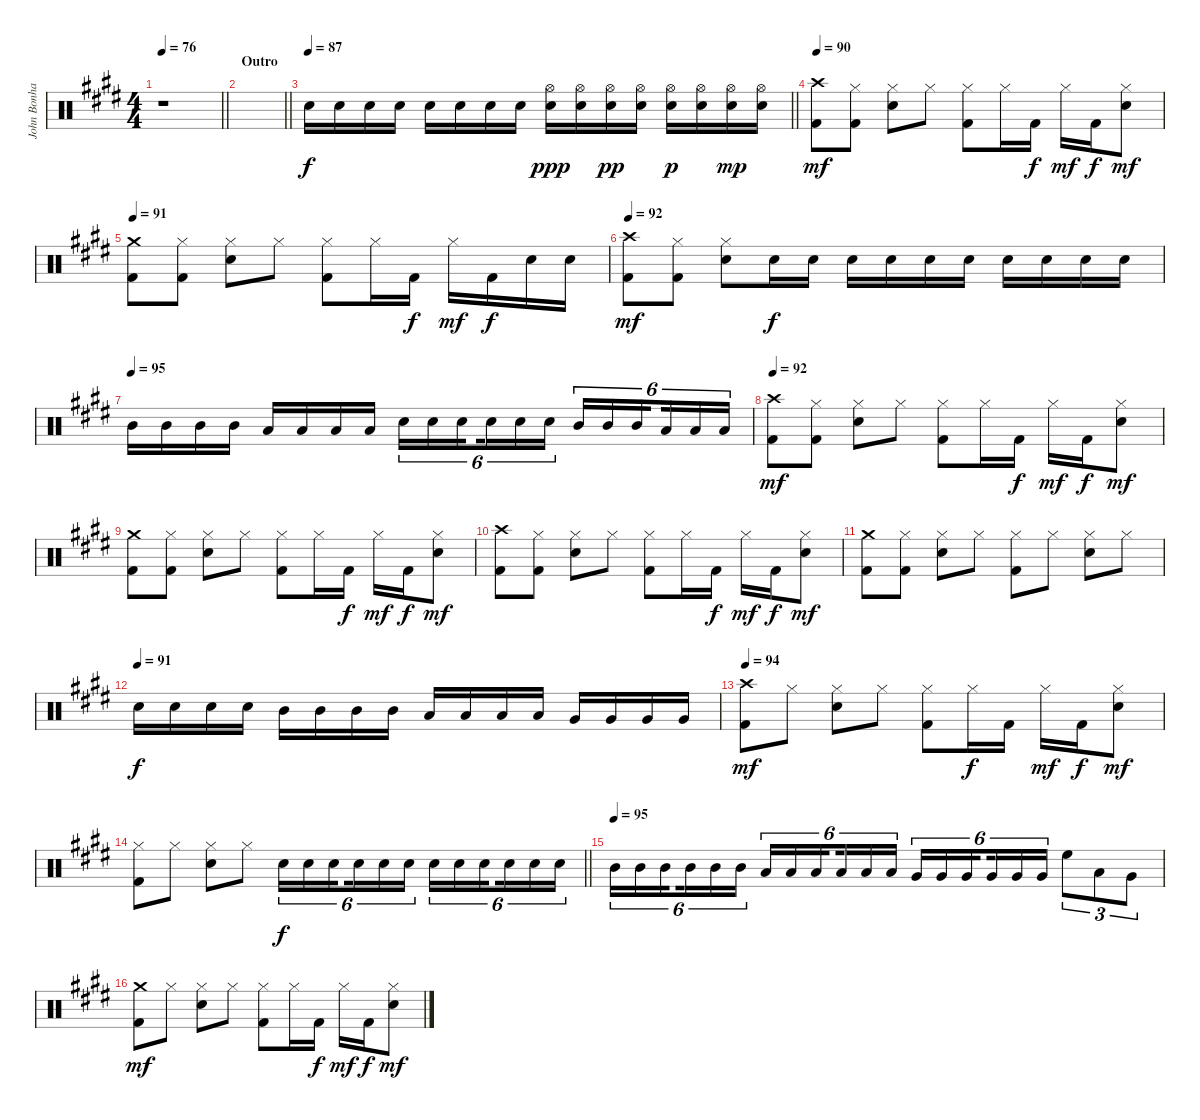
\track ("John Bonham Drums" "John Bonha") {instrument percussion}
\staff {score}
\articulation defaults
\ts (4 4)
\tempo 76
\clef neutral
\barLineRight lightlight
\ks e
r.1{dy mf} |
\section ("" "Outro")
\barLineRight lightlight
|
\tempo 87
\barLineRight lightlight "Snare (hit) 2".16{dy f} "Snare (hit) 2".16 "Snare (hit) 2".16 "Snare (hit) 2".16 "Snare (hit) 2".16 "Snare (hit) 2".16 "Snare (hit) 2".16 "Snare (hit) 2".16
("Hi-Hat (open)" "Snare (hit) 2").16{dy ppp} ("Hi-Hat (open)" "Snare (hit) 2").16 ("Hi-Hat (open)" "Snare (hit) 2").16{dy pp} ("Hi-Hat (open)" "Snare (hit) 2").16 ("Hi-Hat (open)" "Snare (hit) 2").16{dy p} ("Hi-Hat (open)" "Snare (hit) 2").16 ("Hi-Hat (open)" "Snare (hit) 2").16{dy mp} ("Hi-Hat (open)" "Snare (hit) 2").16 |
\tempo 90
("Crash high (hit)" "Kick (hit) 2").8{dy mf} ("Hi-Hat (closed)" "Kick (hit) 2").8 ("Hi-Hat (closed)" "Snare (hit) 2").8 "Hi-Hat (closed)".8 ("Hi-Hat (closed)" "Kick (hit) 2").8 "Hi-Hat (closed)".16 "Kick (hit) 2".16{dy f} "Hi-Hat (closed)".16{dy mf} "Kick (hit) 2".16{dy f} ("Hi-Hat (closed)" "Snare (hit) 2").8{dy mf} |
\tempo 91
("Crash medium (hit)" "Kick (hit) 2").8 ("Hi-Hat (closed)" "Kick (hit) 2").8 ("Hi-Hat (closed)" "Snare (hit) 2").8 "Hi-Hat (closed)".8 ("Hi-Hat (closed)" "Kick (hit) 2").8 "Hi-Hat (closed)".16 "Kick (hit) 2".16{dy f} "Hi-Hat (closed)".16{dy mf} "Kick (hit) 2".16{dy f} "Snare (hit) 2".16 "Snare (hit) 2".16 |
\tempo 92
("Crash high (hit)" "Kick (hit) 2").8{dy mf} ("Hi-Hat (closed)" "Kick (hit) 2").8 ("Hi-Hat (closed)" "Snare (hit) 2").8 "Snare (hit) 2".16{dy f} "Snare (hit) 2".16 "Snare (hit) 2".16 "Snare (hit) 2".16 "Snare (hit) 2".16 "Snare (hit) 2".16 "Snare (hit) 2".16 "Snare (hit) 2".16 "Snare (hit) 2".16 "Snare (hit) 2".16 |
\tempo (95)
"Mid Tom (hit)".16 "Mid Tom (hit)".16 "Mid Tom (hit)".16 "Mid Tom (hit)".16 "Low Tom (hit)".16 "Low Tom (hit)".16 "Low Tom (hit)".16 "Low Tom (hit)".16 "Snare (hit) 2".16{tu (6 4)} "Snare (hit) 2".16{tu (6 4)} "Snare (hit) 2".16{tu (6 4) beam splitsecondary} "Snare (hit) 2".16{tu (6 4)} "Snare (hit) 2".16{tu (6 4)} "Snare (hit) 2".16{tu (6 4)} "Mid Tom (hit)".16{tu (6 4)} "Mid Tom (hit)".16{tu (6 4)} "Mid Tom (hit)".16{tu (6 4) beam splitsecondary} "Low Tom (hit)".16{tu (6 4)} "Low Tom (hit)".16{tu (6 4)} "Low Tom (hit)".16{tu (6 4)} |
\tempo 92
("Crash high (hit)" "Kick (hit) 2").8{dy mf} ("Hi-Hat (closed)" "Kick (hit) 2").8 ("Hi-Hat (closed)" "Snare (hit) 2").8 "Hi-Hat (closed)".8 ("Hi-Hat (closed)" "Kick (hit) 2").8 "Hi-Hat (closed)".16 "Kick (hit) 2".16{dy f} "Hi-Hat (closed)".16{dy mf} "Kick (hit) 2".16{dy f} ("Hi-Hat (closed)" "Snare (hit) 2").8{dy mf} |
("Crash medium (hit)" "Kick (hit) 2").8 ("Hi-Hat (closed)" "Kick (hit) 2").8 ("Hi-Hat (closed)" "Snare (hit) 2").8 "Hi-Hat (closed)".8 ("Hi-Hat (closed)" "Kick (hit) 2").8 "Hi-Hat (closed)".16 "Kick (hit) 2".16{dy f} "Hi-Hat (closed)".16{dy mf} "Kick (hit) 2".16{dy f} ("Hi-Hat (closed)" "Snare (hit) 2").8{dy mf} |
("Crash high (hit)" "Kick (hit) 2").8 ("Hi-Hat (closed)" "Kick (hit) 2").8 ("Hi-Hat (closed)" "Snare (hit) 2").8 "Hi-Hat (closed)".8 ("Hi-Hat (closed)" "Kick (hit) 2").8 "Hi-Hat (closed)".16 "Kick (hit) 2".16{dy f} "Hi-Hat (closed)".16{dy mf} "Kick (hit) 2".16{dy f} ("Hi-Hat (closed)" "Snare (hit) 2").8{dy mf} |
("Crash medium (hit)" "Kick (hit) 2").8 ("Hi-Hat (closed)" "Kick (hit) 2").8 ("Hi-Hat (closed)" "Snare (hit) 2").8 "Hi-Hat (closed)".8 ("Hi-Hat (closed)" "Kick (hit) 2").8 "Hi-Hat (closed)".8 ("Hi-Hat (closed)" "Snare (hit) 2").8 "Hi-Hat (closed)".8 |
\tempo (91)
"Snare (hit) 2".16{dy f} "Snare (hit) 2".16 "Snare (hit) 2".16 "Snare (hit) 2".16 "Mid Tom (hit)".16 "Mid Tom (hit)".16 "Mid Tom (hit)".16 "Mid Tom (hit)".16 "Low Tom (hit)".16 "Low Tom (hit)".16 "Low Tom (hit)".16 "Low Tom (hit)".16 "Very Low Tom (hit)".16 "Very Low Tom (hit)".16 "Very Low Tom (hit)".16 "Very Low Tom (hit)".16 |
\tempo 94
("Crash high (hit)" "Kick (hit) 2").8{dy mf} "Hi-Hat (closed)".8 ("Hi-Hat (closed)" "Snare (hit) 2").8 "Hi-Hat (closed)".8 ("Hi-Hat (closed)" "Kick (hit) 2").8 "Hi-Hat (closed)".16{dy f} "Kick (hit) 2".16 "Hi-Hat (closed)".16{dy mf} "Kick (hit) 2".16{dy f} ("Hi-Hat (closed)" "Snare (hit) 2").8{dy mf} |
\barLineRight lightlight
("Hi-Hat (closed)" "Kick (hit) 2").8 "Hi-Hat (closed)".8 ("Hi-Hat (closed)" "Snare (hit) 2").8 "Hi-Hat (closed)".8 "Snare (hit) 2".16{tu (6 4) dy f} "Snare (hit) 2".16{tu (6 4)} "Snare (hit) 2".16{tu (6 4) beam splitsecondary} "Snare (hit) 2".16{tu (6 4)} "Snare (hit) 2".16{tu (6 4)} "Snare (hit) 2".16{tu (6 4)} "Snare (hit) 2".16{tu (6 4)} "Snare (hit) 2".16{tu (6 4)} "Snare (hit) 2".16{tu (6 4) beam splitsecondary} "Snare (hit) 2".16{tu (6 4)} "Snare (hit) 2".16{tu (6 4)} "Snare (hit) 2".16{tu (6 4)} |
\tempo (95)
"Mid Tom (hit)".16{tu (6 4)} "Mid Tom (hit)".16{tu (6 4)} "Mid Tom (hit)".16{tu (6 4) beam splitsecondary} "Mid Tom (hit)".16{tu (6 4)} "Mid Tom (hit)".16{tu (6 4)} "Mid Tom (hit)".16{tu (6 4)} "Low Tom (hit)".16{tu (6 4)} "Low Tom (hit)".16{tu (6 4)} "Low Tom (hit)".16{tu (6 4) beam splitsecondary} "Low Tom (hit)".16{tu (6 4)} "Low Tom (hit)".16{tu (6 4)} "Low Tom (hit)".16{tu (6 4)} "Very Low Tom (hit)".16{tu (6 4)} "Very Low Tom (hit)".16{tu (6 4)} "Very Low Tom (hit)".16{tu (6 4) beam splitsecondary} "Very Low Tom (hit)".16{tu (6 4)} "Very Low Tom (hit)".16{tu (6 4)} "Very Low Tom (hit)".16{tu (6 4)} "High Floor Tom (hit)".8{tu (3 2)} "Low Tom (hit)".8{tu (3 2)} "Very Low Tom (hit)".8{tu (3 2)} |
("Crash medium (hit)" "Kick (hit) 2").8{dy mf} "Hi-Hat (closed)".8 ("Hi-Hat (closed)" "Snare (hit) 2").8 "Hi-Hat (closed)".8 ("Hi-Hat (closed)" "Kick (hit) 2").8 "Hi-Hat (closed)".16 "Kick (hit) 2".16{dy f} "Hi-Hat (closed)".16{dy mf} "Kick (hit) 2".16{dy f} ("Hi-Hat (closed)" "Snare (hit) 2").8{dy mf}
